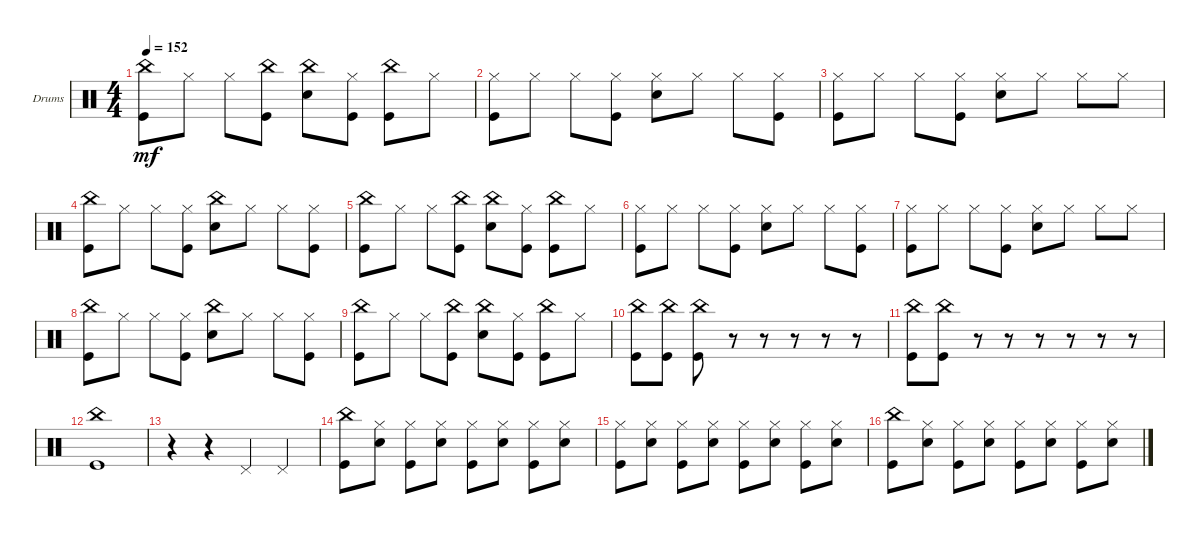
\defaultSystemsLayout 4
\bracketExtendMode groupsimilarinstruments
\firstSystemTrackNameOrientation horizontal
\otherSystemsTrackNameOrientation horizontal
\track ("Drumkit" "Drums") {instrument percussion}
\staff {score}
\articulation defaults
\ts (4 4)
\tempo 152
\clef neutral
\ks c
("Kick (hit)" "China (hit)").8{dy mf} "Hi-Hat (closed)".8 "Hi-Hat (closed)".8 ("China (hit)" "Kick (hit)").8 ("China (hit)" "Snare (hit) 2").8 ("Hi-Hat (closed)" "Kick (hit)").8 ("China (hit)" "Kick (hit)").8 "Hi-Hat (closed)".8 |
("Kick (hit)" "Hi-Hat (closed)").8 "Hi-Hat (closed)".8 "Hi-Hat (closed)".8 ("Hi-Hat (closed)" "Kick (hit)").8 ("Hi-Hat (closed)" "Snare (hit) 2").8 "Hi-Hat (closed)".8 "Hi-Hat (closed)".8 ("Hi-Hat (closed)" "Kick (hit)").8 |
("Kick (hit)" "Hi-Hat (closed)").8 "Hi-Hat (closed)".8 "Hi-Hat (closed)".8 ("Hi-Hat (closed)" "Kick (hit)").8 ("Hi-Hat (closed)" "Snare (hit) 2").8 "Hi-Hat (closed)".8 "Hi-Hat (closed)".8 "Hi-Hat (closed)".8 |
("Kick (hit)" "China (hit)").8 "Hi-Hat (closed)".8 "Hi-Hat (closed)".8 ("Hi-Hat (closed)" "Kick (hit)").8 ("Snare (hit) 2" "China (hit)").8 "Hi-Hat (closed)".8 "Hi-Hat (closed)".8 ("Hi-Hat (closed)" "Kick (hit)").8 |
("Kick (hit)" "China (hit)").8 "Hi-Hat (closed)".8 "Hi-Hat (closed)".8 ("China (hit)" "Kick (hit)").8 ("China (hit)" "Snare (hit) 2").8 ("Hi-Hat (closed)" "Kick (hit)").8 ("China (hit)" "Kick (hit)").8 "Hi-Hat (closed)".8 |
("Kick (hit)" "Hi-Hat (closed)").8 "Hi-Hat (closed)".8 "Hi-Hat (closed)".8 ("Hi-Hat (closed)" "Kick (hit)").8 ("Hi-Hat (closed)" "Snare (hit) 2").8 "Hi-Hat (closed)".8 "Hi-Hat (closed)".8 ("Hi-Hat (closed)" "Kick (hit)").8 |
("Kick (hit)" "Hi-Hat (closed)").8 "Hi-Hat (closed)".8 "Hi-Hat (closed)".8 ("Hi-Hat (closed)" "Kick (hit)").8 ("Hi-Hat (closed)" "Snare (hit) 2").8 "Hi-Hat (closed)".8 "Hi-Hat (closed)".8 "Hi-Hat (closed)".8 |
("Kick (hit)" "China (hit)").8 "Hi-Hat (closed)".8 "Hi-Hat (closed)".8 ("Hi-Hat (closed)" "Kick (hit)").8 ("Snare (hit) 2" "China (hit)").8 "Hi-Hat (closed)".8 "Hi-Hat (closed)".8 ("Hi-Hat (closed)" "Kick (hit)").8 |
("Kick (hit)" "China (hit)").8 "Hi-Hat (closed)".8 "Hi-Hat (closed)".8 ("China (hit)" "Kick (hit)").8 ("China (hit)" "Snare (hit) 2").8 ("Hi-Hat (closed)" "Kick (hit)").8 ("China (hit)" "Kick (hit)").8 "Hi-Hat (closed)".8 |
("Kick (hit)" "China (hit)").8 ("Kick (hit)" "China (hit)").8 ("Kick (hit)" "China (hit)").8 r.8 r.8 r.8 r.8 r.8 |
("Kick (hit)" "China (hit)").8 ("Kick (hit)" "China (hit)").8 r.8 r.8 r.8 r.8 r.8 r.8 |
("Kick (hit)" "China (hit)").1 |
r.4 r.4 "Pedal Hi-Hat (hit)".4 "Pedal Hi-Hat (hit)".4 |
("Kick (hit)" "China (hit)").8 ("Snare (hit) 2" "Hi-Hat (closed)").8 ("Hi-Hat (closed)" "Kick (hit)").8 ("Hi-Hat (closed)" "Snare (hit) 2").8 ("Hi-Hat (closed)" "Kick (hit)").8 ("Hi-Hat (closed)" "Snare (hit) 2").8 ("Hi-Hat (closed)" "Kick (hit)").8 ("Hi-Hat (closed)" "Snare (hit) 2").8 |
("Kick (hit)" "Hi-Hat (closed)").8 ("Snare (hit) 2" "Hi-Hat (closed)").8 ("Hi-Hat (closed)" "Kick (hit)").8 ("Hi-Hat (closed)" "Snare (hit) 2").8 ("Hi-Hat (closed)" "Kick (hit)").8 ("Hi-Hat (closed)" "Snare (hit) 2").8 ("Hi-Hat (closed)" "Kick (hit)").8 ("Hi-Hat (closed)" "Snare (hit) 2").8 |
("Kick (hit)" "China (hit)").8 ("Snare (hit) 2" "Hi-Hat (closed)").8 ("Hi-Hat (closed)" "Kick (hit)").8 ("Hi-Hat (closed)" "Snare (hit) 2").8 ("Hi-Hat (closed)" "Kick (hit)").8 ("Hi-Hat (closed)" "Snare (hit) 2").8 ("Hi-Hat (closed)" "Kick (hit)").8 ("Hi-Hat (closed)" "Snare (hit) 2").8
